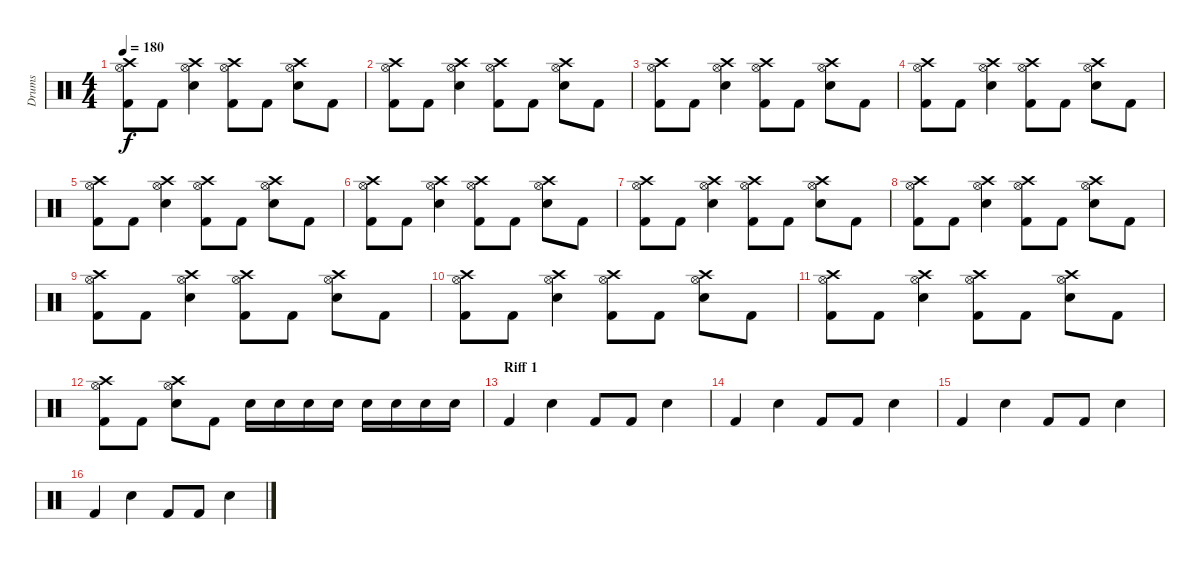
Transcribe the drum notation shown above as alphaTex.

\track ("Drums" "Drums") {instrument percussion}
\staff {score}
\articulation defaults
\ts (4 4)
\tempo 180
\clef neutral
\ks c
("Kick (hit) 2" "Hi-Hat (open)" "Crash high (hit)").8{dy f} "Kick (hit) 2".8 ("Snare (hit) 2" "Hi-Hat (open)" "Crash high (hit)").4 ("Hi-Hat (open)" "Crash high (hit)" "Kick (hit) 2").8 "Kick (hit) 2".8 ("Hi-Hat (open)" "Crash high (hit)" "Snare (hit) 2").8 "Kick (hit) 2".8 |
("Kick (hit) 2" "Hi-Hat (open)" "Crash high (hit)").8 "Kick (hit) 2".8 ("Snare (hit) 2" "Hi-Hat (open)" "Crash high (hit)").4 ("Hi-Hat (open)" "Crash high (hit)" "Kick (hit) 2").8 "Kick (hit) 2".8 ("Hi-Hat (open)" "Crash high (hit)" "Snare (hit) 2").8 "Kick (hit) 2".8 |
("Kick (hit) 2" "Hi-Hat (open)" "Crash high (hit)").8 "Kick (hit) 2".8 ("Snare (hit) 2" "Hi-Hat (open)" "Crash high (hit)").4 ("Hi-Hat (open)" "Crash high (hit)" "Kick (hit) 2").8 "Kick (hit) 2".8 ("Hi-Hat (open)" "Crash high (hit)" "Snare (hit) 2").8 "Kick (hit) 2".8 |
("Kick (hit) 2" "Hi-Hat (open)" "Crash high (hit)").8 "Kick (hit) 2".8 ("Snare (hit) 2" "Hi-Hat (open)" "Crash high (hit)").4 ("Hi-Hat (open)" "Crash high (hit)" "Kick (hit) 2").8 "Kick (hit) 2".8 ("Hi-Hat (open)" "Crash high (hit)" "Snare (hit) 2").8 "Kick (hit) 2".8 |
("Kick (hit) 2" "Hi-Hat (open)" "Crash high (hit)").8 "Kick (hit) 2".8 ("Snare (hit) 2" "Hi-Hat (open)" "Crash high (hit)").4 ("Hi-Hat (open)" "Crash high (hit)" "Kick (hit) 2").8 "Kick (hit) 2".8 ("Hi-Hat (open)" "Crash high (hit)" "Snare (hit) 2").8 "Kick (hit) 2".8 |
("Kick (hit) 2" "Hi-Hat (open)" "Crash high (hit)").8 "Kick (hit) 2".8 ("Snare (hit) 2" "Hi-Hat (open)" "Crash high (hit)").4 ("Hi-Hat (open)" "Crash high (hit)" "Kick (hit) 2").8 "Kick (hit) 2".8 ("Hi-Hat (open)" "Crash high (hit)" "Snare (hit) 2").8 "Kick (hit) 2".8 |
("Kick (hit) 2" "Hi-Hat (open)" "Crash high (hit)").8 "Kick (hit) 2".8 ("Snare (hit) 2" "Hi-Hat (open)" "Crash high (hit)").4 ("Hi-Hat (open)" "Crash high (hit)" "Kick (hit) 2").8 "Kick (hit) 2".8 ("Hi-Hat (open)" "Crash high (hit)" "Snare (hit) 2").8 "Kick (hit) 2".8 |
("Kick (hit) 2" "Hi-Hat (open)" "Crash high (hit)").8 "Kick (hit) 2".8 ("Snare (hit) 2" "Hi-Hat (open)" "Crash high (hit)").4 ("Hi-Hat (open)" "Crash high (hit)" "Kick (hit) 2").8 "Kick (hit) 2".8 ("Hi-Hat (open)" "Crash high (hit)" "Snare (hit) 2").8 "Kick (hit) 2".8 |
("Kick (hit) 2" "Hi-Hat (open)" "Crash high (hit)").8 "Kick (hit) 2".8 ("Snare (hit) 2" "Hi-Hat (open)" "Crash high (hit)").4 ("Hi-Hat (open)" "Crash high (hit)" "Kick (hit) 2").8 "Kick (hit) 2".8 ("Hi-Hat (open)" "Crash high (hit)" "Snare (hit) 2").8 "Kick (hit) 2".8 |
("Kick (hit) 2" "Hi-Hat (open)" "Crash high (hit)").8 "Kick (hit) 2".8 ("Snare (hit) 2" "Hi-Hat (open)" "Crash high (hit)").4 ("Hi-Hat (open)" "Crash high (hit)" "Kick (hit) 2").8 "Kick (hit) 2".8 ("Hi-Hat (open)" "Crash high (hit)" "Snare (hit) 2").8 "Kick (hit) 2".8 |
("Kick (hit) 2" "Hi-Hat (open)" "Crash high (hit)").8 "Kick (hit) 2".8 ("Snare (hit) 2" "Hi-Hat (open)" "Crash high (hit)").4 ("Hi-Hat (open)" "Crash high (hit)" "Kick (hit) 2").8 "Kick (hit) 2".8 ("Hi-Hat (open)" "Crash high (hit)" "Snare (hit) 2").8 "Kick (hit) 2".8 |
("Kick (hit) 2" "Hi-Hat (open)" "Crash high (hit)").8 "Kick (hit) 2".8 ("Snare (hit) 2" "Hi-Hat (open)" "Crash high (hit)").8 "Kick (hit) 2".8 "Snare (hit) 2".16 "Snare (hit) 2".16 "Snare (hit) 2".16 "Snare (hit) 2".16 "Snare (hit) 2".16 "Snare (hit) 2".16 "Snare (hit) 2".16 "Snare (hit) 2".16 |
\section ("" "Riff 1")
"Kick (hit) 2".4 "Snare (hit) 2".4 "Kick (hit) 2".8 "Kick (hit) 2".8 "Snare (hit) 2".4 |
"Kick (hit) 2".4 "Snare (hit) 2".4 "Kick (hit) 2".8 "Kick (hit) 2".8 "Snare (hit) 2".4 |
"Kick (hit) 2".4 "Snare (hit) 2".4 "Kick (hit) 2".8 "Kick (hit) 2".8 "Snare (hit) 2".4 |
"Kick (hit) 2".4 "Snare (hit) 2".4 "Kick (hit) 2".8 "Kick (hit) 2".8 "Snare (hit) 2".4
